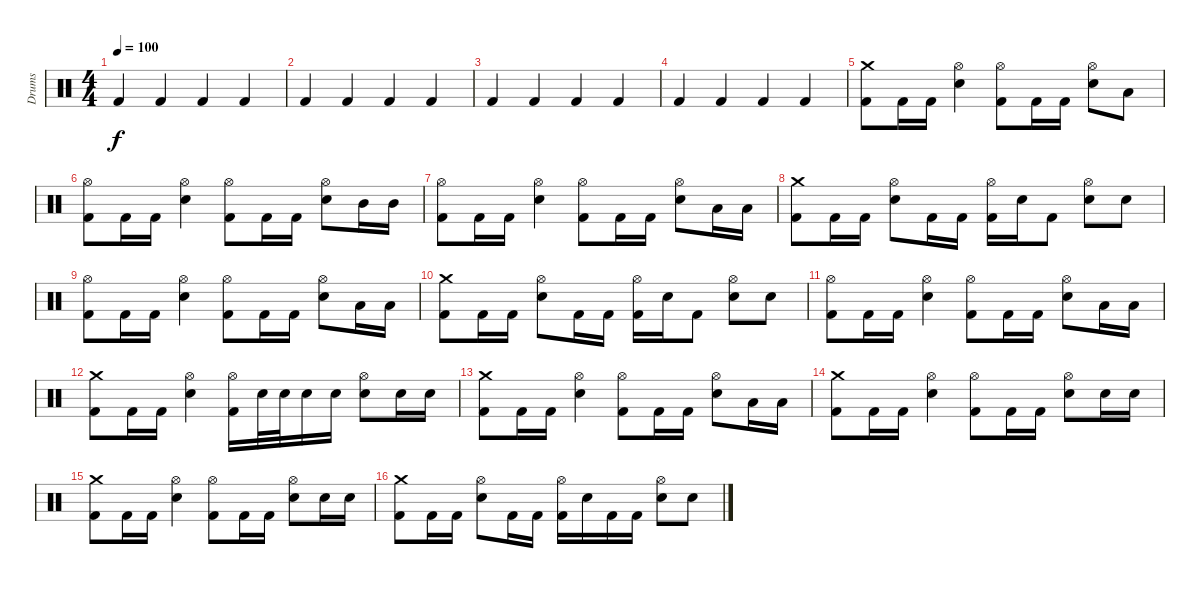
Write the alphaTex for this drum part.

\track ("Drums" "Drums") {instrument percussion}
\staff {score}
\articulation defaults
\ts (4 4)
\tempo 100
\clef neutral
\ks c "Kick (hit) 2".4{dy f} "Kick (hit) 2".4 "Kick (hit) 2".4 "Kick (hit) 2".4
|
"Kick (hit) 2".4 "Kick (hit) 2".4 "Kick (hit) 2".4 "Kick (hit) 2".4 |
"Kick (hit) 2".4 "Kick (hit) 2".4 "Kick (hit) 2".4 "Kick (hit) 2".4 |
"Kick (hit) 2".4 "Kick (hit) 2".4 "Kick (hit) 2".4 "Kick (hit) 2".4 |
("Crash medium (hit)" "Kick (hit) 2").8 "Kick (hit) 2".16 "Kick (hit) 2".16 ("Hi-Hat (open)" "Electric Snare (hit)").4 ("Hi-Hat (open)" "Kick (hit) 2").8 "Kick (hit) 2".16 "Kick (hit) 2".16 ("Hi-Hat (open)" "Electric Snare (hit)").8 "Low Tom (hit)".8 |
("Hi-Hat (open)" "Kick (hit) 2").8 "Kick (hit) 2".16 "Kick (hit) 2".16 ("Hi-Hat (open)" "Electric Snare (hit)").4 ("Hi-Hat (open)" "Kick (hit) 2").8 "Kick (hit) 2".16 "Kick (hit) 2".16 ("Hi-Hat (open)" "Electric Snare (hit)").8 "Mid Tom (hit)".16 "Mid Tom (hit)".16 |
("Hi-Hat (open)" "Kick (hit) 2").8 "Kick (hit) 2".16 "Kick (hit) 2".16 ("Hi-Hat (open)" "Electric Snare (hit)").4 ("Hi-Hat (open)" "Kick (hit) 2").8 "Kick (hit) 2".16 "Kick (hit) 2".16 ("Hi-Hat (open)" "Electric Snare (hit)").8 "Low Tom (hit)".16 "Low Tom (hit)".16 |
("Crash medium (hit)" "Kick (hit) 2").8 "Kick (hit) 2".16 "Kick (hit) 2".16 ("Hi-Hat (open)" "Electric Snare (hit)").8 "Kick (hit) 2".16 "Kick (hit) 2".16 ("Hi-Hat (open)" "Kick (hit) 2").16 "Electric Snare (hit)".16 "Kick (hit) 2".8 ("Hi-Hat (open)" "Electric Snare (hit)").8 "Electric Snare (hit)".8 |
("Hi-Hat (open)" "Kick (hit) 2").8 "Kick (hit) 2".16 "Kick (hit) 2".16 ("Hi-Hat (open)" "Electric Snare (hit)").4 ("Hi-Hat (open)" "Kick (hit) 2").8 "Kick (hit) 2".16 "Kick (hit) 2".16 ("Hi-Hat (open)" "Electric Snare (hit)").8 "Low Tom (hit)".16 "Low Tom (hit)".16 |
("Crash medium (hit)" "Kick (hit) 2").8 "Kick (hit) 2".16 "Kick (hit) 2".16 ("Hi-Hat (open)" "Electric Snare (hit)").8 "Kick (hit) 2".16 "Kick (hit) 2".16 ("Hi-Hat (open)" "Kick (hit) 2").16 "Electric Snare (hit)".16 "Kick (hit) 2".8 ("Hi-Hat (open)" "Electric Snare (hit)").8 "Electric Snare (hit)".8 |
("Hi-Hat (open)" "Kick (hit) 2").8 "Kick (hit) 2".16 "Kick (hit) 2".16 ("Hi-Hat (open)" "Electric Snare (hit)").4 ("Hi-Hat (open)" "Kick (hit) 2").8 "Kick (hit) 2".16 "Kick (hit) 2".16 ("Hi-Hat (open)" "Electric Snare (hit)").8 "Low Tom (hit)".16 "Low Tom (hit)".16 |
("Crash medium (hit)" "Kick (hit) 2").8 "Kick (hit) 2".16 "Kick (hit) 2".16 ("Hi-Hat (open)" "Electric Snare (hit)").4 ("Hi-Hat (open)" "Kick (hit) 2").16 "Electric Snare (hit)".32 "Electric Snare (hit)".32 "Electric Snare (hit)".16 "Electric Snare (hit)".16 ("Hi-Hat (open)" "Electric Snare (hit)").8 "Electric Snare (hit)".16 "Electric Snare (hit)".16 |
("Crash medium (hit)" "Kick (hit) 2").8 "Kick (hit) 2".16 "Kick (hit) 2".16 ("Hi-Hat (open)" "Electric Snare (hit)").4 ("Hi-Hat (open)" "Kick (hit) 2").8 "Kick (hit) 2".16 "Kick (hit) 2".16 ("Hi-Hat (open)" "Electric Snare (hit)").8 "Low Tom (hit)".16 "Low Tom (hit)".16 |
("Crash medium (hit)" "Kick (hit) 2").8 "Kick (hit) 2".16 "Kick (hit) 2".16 ("Hi-Hat (open)" "Electric Snare (hit)").4 ("Hi-Hat (open)" "Kick (hit) 2").8 "Kick (hit) 2".16 "Kick (hit) 2".16 ("Hi-Hat (open)" "Electric Snare (hit)").8 "Electric Snare (hit)".16 "Electric Snare (hit)".16 |
("Crash medium (hit)" "Kick (hit) 2").8 "Kick (hit) 2".16 "Kick (hit) 2".16 ("Hi-Hat (open)" "Electric Snare (hit)").4 ("Hi-Hat (open)" "Kick (hit) 2").8 "Kick (hit) 2".16 "Kick (hit) 2".16 ("Hi-Hat (open)" "Electric Snare (hit)").8 "Electric Snare (hit)".16 "Electric Snare (hit)".16 |
("Crash medium (hit)" "Kick (hit) 2").8 "Kick (hit) 2".16 "Kick (hit) 2".16 ("Hi-Hat (open)" "Electric Snare (hit)").8 "Kick (hit) 2".16 "Kick (hit) 2".16 ("Hi-Hat (open)" "Kick (hit) 2").16 "Electric Snare (hit)".16 "Kick (hit) 2".16 "Kick (hit) 2".16 ("Hi-Hat (open)" "Electric Snare (hit)").8 "Electric Snare (hit)".8
